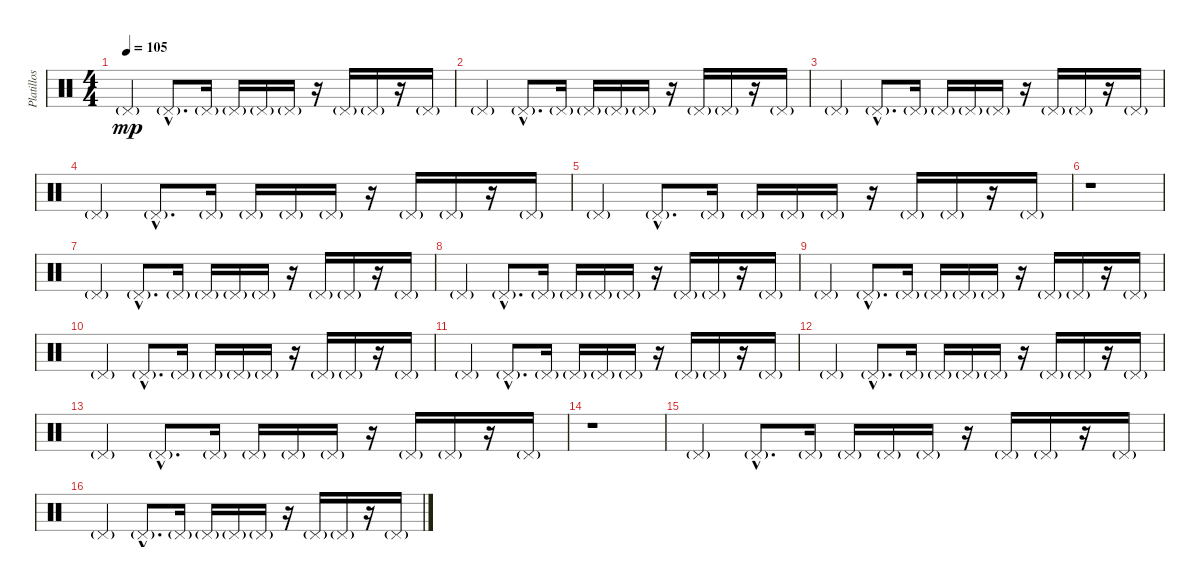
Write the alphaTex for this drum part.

\track ("Platillos" "Platillos") {instrument percussion}
\staff {score}
\articulation defaults
\ts (4 4)
\tempo 105
\clef neutral
\ks c "Pedal Hi-Hat (hit)"{g}.4{dy mp} "Pedal Hi-Hat (hit)"{g hac}.8{d} "Pedal Hi-Hat (hit)"{g}.16 "Pedal Hi-Hat (hit)"{g}.16 "Pedal Hi-Hat (hit)"{g}.16 "Pedal Hi-Hat (hit)"{g}.16
r.16 "Pedal Hi-Hat (hit)"{g}.16 "Pedal Hi-Hat (hit)"{g}.16 r.16 "Pedal Hi-Hat (hit)"{g}.16 |
"Pedal Hi-Hat (hit)"{g}.4 "Pedal Hi-Hat (hit)"{g hac}.8{d} "Pedal Hi-Hat (hit)"{g}.16 "Pedal Hi-Hat (hit)"{g}.16 "Pedal Hi-Hat (hit)"{g}.16 "Pedal Hi-Hat (hit)"{g}.16 r.16 "Pedal Hi-Hat (hit)"{g}.16 "Pedal Hi-Hat (hit)"{g}.16 r.16 "Pedal Hi-Hat (hit)"{g}.16 |
"Pedal Hi-Hat (hit)"{g}.4 "Pedal Hi-Hat (hit)"{g hac}.8{d} "Pedal Hi-Hat (hit)"{g}.16 "Pedal Hi-Hat (hit)"{g}.16 "Pedal Hi-Hat (hit)"{g}.16 "Pedal Hi-Hat (hit)"{g}.16 r.16 "Pedal Hi-Hat (hit)"{g}.16 "Pedal Hi-Hat (hit)"{g}.16 r.16 "Pedal Hi-Hat (hit)"{g}.16 |
"Pedal Hi-Hat (hit)"{g}.4 "Pedal Hi-Hat (hit)"{g hac}.8{d} "Pedal Hi-Hat (hit)"{g}.16 "Pedal Hi-Hat (hit)"{g}.16 "Pedal Hi-Hat (hit)"{g}.16 "Pedal Hi-Hat (hit)"{g}.16 r.16 "Pedal Hi-Hat (hit)"{g}.16 "Pedal Hi-Hat (hit)"{g}.16 r.16 "Pedal Hi-Hat (hit)"{g}.16 |
"Pedal Hi-Hat (hit)"{g}.4 "Pedal Hi-Hat (hit)"{g hac}.8{d} "Pedal Hi-Hat (hit)"{g}.16 "Pedal Hi-Hat (hit)"{g}.16 "Pedal Hi-Hat (hit)"{g}.16 "Pedal Hi-Hat (hit)"{g}.16 r.16 "Pedal Hi-Hat (hit)"{g}.16 "Pedal Hi-Hat (hit)"{g}.16 r.16 "Pedal Hi-Hat (hit)"{g}.16 |
r.1 |
"Pedal Hi-Hat (hit)"{g}.4 "Pedal Hi-Hat (hit)"{g hac}.8{d} "Pedal Hi-Hat (hit)"{g}.16 "Pedal Hi-Hat (hit)"{g}.16 "Pedal Hi-Hat (hit)"{g}.16 "Pedal Hi-Hat (hit)"{g}.16 r.16 "Pedal Hi-Hat (hit)"{g}.16 "Pedal Hi-Hat (hit)"{g}.16 r.16 "Pedal Hi-Hat (hit)"{g}.16 |
"Pedal Hi-Hat (hit)"{g}.4 "Pedal Hi-Hat (hit)"{g hac}.8{d} "Pedal Hi-Hat (hit)"{g}.16 "Pedal Hi-Hat (hit)"{g}.16 "Pedal Hi-Hat (hit)"{g}.16 "Pedal Hi-Hat (hit)"{g}.16 r.16 "Pedal Hi-Hat (hit)"{g}.16 "Pedal Hi-Hat (hit)"{g}.16 r.16 "Pedal Hi-Hat (hit)"{g}.16 |
"Pedal Hi-Hat (hit)"{g}.4 "Pedal Hi-Hat (hit)"{g hac}.8{d} "Pedal Hi-Hat (hit)"{g}.16 "Pedal Hi-Hat (hit)"{g}.16 "Pedal Hi-Hat (hit)"{g}.16 "Pedal Hi-Hat (hit)"{g}.16 r.16 "Pedal Hi-Hat (hit)"{g}.16 "Pedal Hi-Hat (hit)"{g}.16 r.16 "Pedal Hi-Hat (hit)"{g}.16 |
"Pedal Hi-Hat (hit)"{g}.4 "Pedal Hi-Hat (hit)"{g hac}.8{d} "Pedal Hi-Hat (hit)"{g}.16 "Pedal Hi-Hat (hit)"{g}.16 "Pedal Hi-Hat (hit)"{g}.16 "Pedal Hi-Hat (hit)"{g}.16 r.16 "Pedal Hi-Hat (hit)"{g}.16 "Pedal Hi-Hat (hit)"{g}.16 r.16 "Pedal Hi-Hat (hit)"{g}.16 |
"Pedal Hi-Hat (hit)"{g}.4 "Pedal Hi-Hat (hit)"{g hac}.8{d} "Pedal Hi-Hat (hit)"{g}.16 "Pedal Hi-Hat (hit)"{g}.16 "Pedal Hi-Hat (hit)"{g}.16 "Pedal Hi-Hat (hit)"{g}.16 r.16 "Pedal Hi-Hat (hit)"{g}.16 "Pedal Hi-Hat (hit)"{g}.16 r.16 "Pedal Hi-Hat (hit)"{g}.16 |
"Pedal Hi-Hat (hit)"{g}.4 "Pedal Hi-Hat (hit)"{g hac}.8{d} "Pedal Hi-Hat (hit)"{g}.16 "Pedal Hi-Hat (hit)"{g}.16 "Pedal Hi-Hat (hit)"{g}.16 "Pedal Hi-Hat (hit)"{g}.16 r.16 "Pedal Hi-Hat (hit)"{g}.16 "Pedal Hi-Hat (hit)"{g}.16 r.16 "Pedal Hi-Hat (hit)"{g}.16 |
"Pedal Hi-Hat (hit)"{g}.4 "Pedal Hi-Hat (hit)"{g hac}.8{d} "Pedal Hi-Hat (hit)"{g}.16 "Pedal Hi-Hat (hit)"{g}.16 "Pedal Hi-Hat (hit)"{g}.16 "Pedal Hi-Hat (hit)"{g}.16 r.16 "Pedal Hi-Hat (hit)"{g}.16 "Pedal Hi-Hat (hit)"{g}.16 r.16 "Pedal Hi-Hat (hit)"{g}.16 |
r.1 |
"Pedal Hi-Hat (hit)"{g}.4 "Pedal Hi-Hat (hit)"{g hac}.8{d} "Pedal Hi-Hat (hit)"{g}.16 "Pedal Hi-Hat (hit)"{g}.16 "Pedal Hi-Hat (hit)"{g}.16 "Pedal Hi-Hat (hit)"{g}.16 r.16 "Pedal Hi-Hat (hit)"{g}.16 "Pedal Hi-Hat (hit)"{g}.16 r.16 "Pedal Hi-Hat (hit)"{g}.16 |
"Pedal Hi-Hat (hit)"{g}.4 "Pedal Hi-Hat (hit)"{g hac}.8{d} "Pedal Hi-Hat (hit)"{g}.16 "Pedal Hi-Hat (hit)"{g}.16 "Pedal Hi-Hat (hit)"{g}.16 "Pedal Hi-Hat (hit)"{g}.16 r.16 "Pedal Hi-Hat (hit)"{g}.16 "Pedal Hi-Hat (hit)"{g}.16 r.16 "Pedal Hi-Hat (hit)"{g}.16
